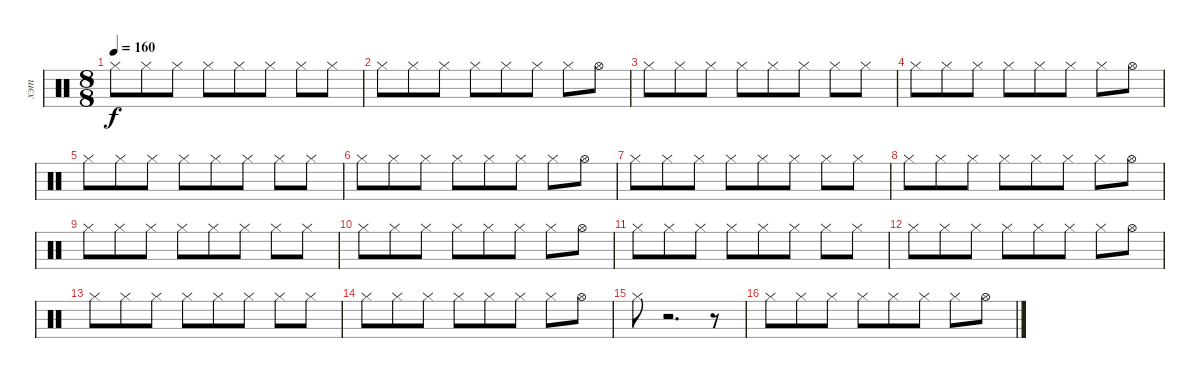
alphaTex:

\track ("хэт" "хэт") {instrument percussion}
\staff {score}
\articulation defaults
\ts (8 8)
\tempo 160
\clef neutral
\ks c "Hi-Hat (closed)".8{dy f} "Hi-Hat (closed)".8 "Hi-Hat (closed)".8 "Hi-Hat (closed)".8 "Hi-Hat (closed)".8 "Hi-Hat (closed)".8 "Hi-Hat (closed)".8 "Hi-Hat (closed)".8
|
"Hi-Hat (closed)".8 "Hi-Hat (closed)".8 "Hi-Hat (closed)".8 "Hi-Hat (closed)".8 "Hi-Hat (closed)".8 "Hi-Hat (closed)".8 "Hi-Hat (closed)".8 "Hi-Hat (open)".8 |
"Hi-Hat (closed)".8 "Hi-Hat (closed)".8 "Hi-Hat (closed)".8 "Hi-Hat (closed)".8 "Hi-Hat (closed)".8 "Hi-Hat (closed)".8 "Hi-Hat (closed)".8 "Hi-Hat (closed)".8 |
"Hi-Hat (closed)".8 "Hi-Hat (closed)".8 "Hi-Hat (closed)".8 "Hi-Hat (closed)".8 "Hi-Hat (closed)".8 "Hi-Hat (closed)".8 "Hi-Hat (closed)".8 "Hi-Hat (open)".8 |
"Hi-Hat (closed)".8 "Hi-Hat (closed)".8 "Hi-Hat (closed)".8 "Hi-Hat (closed)".8 "Hi-Hat (closed)".8 "Hi-Hat (closed)".8 "Hi-Hat (closed)".8 "Hi-Hat (closed)".8 |
"Hi-Hat (closed)".8 "Hi-Hat (closed)".8 "Hi-Hat (closed)".8 "Hi-Hat (closed)".8 "Hi-Hat (closed)".8 "Hi-Hat (closed)".8 "Hi-Hat (closed)".8 "Hi-Hat (open)".8 |
"Hi-Hat (closed)".8 "Hi-Hat (closed)".8 "Hi-Hat (closed)".8 "Hi-Hat (closed)".8 "Hi-Hat (closed)".8 "Hi-Hat (closed)".8 "Hi-Hat (closed)".8 "Hi-Hat (closed)".8 |
"Hi-Hat (closed)".8 "Hi-Hat (closed)".8 "Hi-Hat (closed)".8 "Hi-Hat (closed)".8 "Hi-Hat (closed)".8 "Hi-Hat (closed)".8 "Hi-Hat (closed)".8 "Hi-Hat (open)".8 |
"Hi-Hat (closed)".8 "Hi-Hat (closed)".8 "Hi-Hat (closed)".8 "Hi-Hat (closed)".8 "Hi-Hat (closed)".8 "Hi-Hat (closed)".8 "Hi-Hat (closed)".8 "Hi-Hat (closed)".8 |
"Hi-Hat (closed)".8 "Hi-Hat (closed)".8 "Hi-Hat (closed)".8 "Hi-Hat (closed)".8 "Hi-Hat (closed)".8 "Hi-Hat (closed)".8 "Hi-Hat (closed)".8 "Hi-Hat (open)".8 |
"Hi-Hat (closed)".8 "Hi-Hat (closed)".8 "Hi-Hat (closed)".8 "Hi-Hat (closed)".8 "Hi-Hat (closed)".8 "Hi-Hat (closed)".8 "Hi-Hat (closed)".8 "Hi-Hat (closed)".8 |
"Hi-Hat (closed)".8 "Hi-Hat (closed)".8 "Hi-Hat (closed)".8 "Hi-Hat (closed)".8 "Hi-Hat (closed)".8 "Hi-Hat (closed)".8 "Hi-Hat (closed)".8 "Hi-Hat (open)".8 |
"Hi-Hat (closed)".8 "Hi-Hat (closed)".8 "Hi-Hat (closed)".8 "Hi-Hat (closed)".8 "Hi-Hat (closed)".8 "Hi-Hat (closed)".8 "Hi-Hat (closed)".8 "Hi-Hat (closed)".8 |
"Hi-Hat (closed)".8 "Hi-Hat (closed)".8 "Hi-Hat (closed)".8 "Hi-Hat (closed)".8 "Hi-Hat (closed)".8 "Hi-Hat (closed)".8 "Hi-Hat (closed)".8 "Hi-Hat (open)".8 |
"Hi-Hat (closed)".8 r.2{d} r.8 |
"Hi-Hat (closed)".8 "Hi-Hat (closed)".8 "Hi-Hat (closed)".8 "Hi-Hat (closed)".8 "Hi-Hat (closed)".8 "Hi-Hat (closed)".8 "Hi-Hat (closed)".8 "Hi-Hat (open)".8
